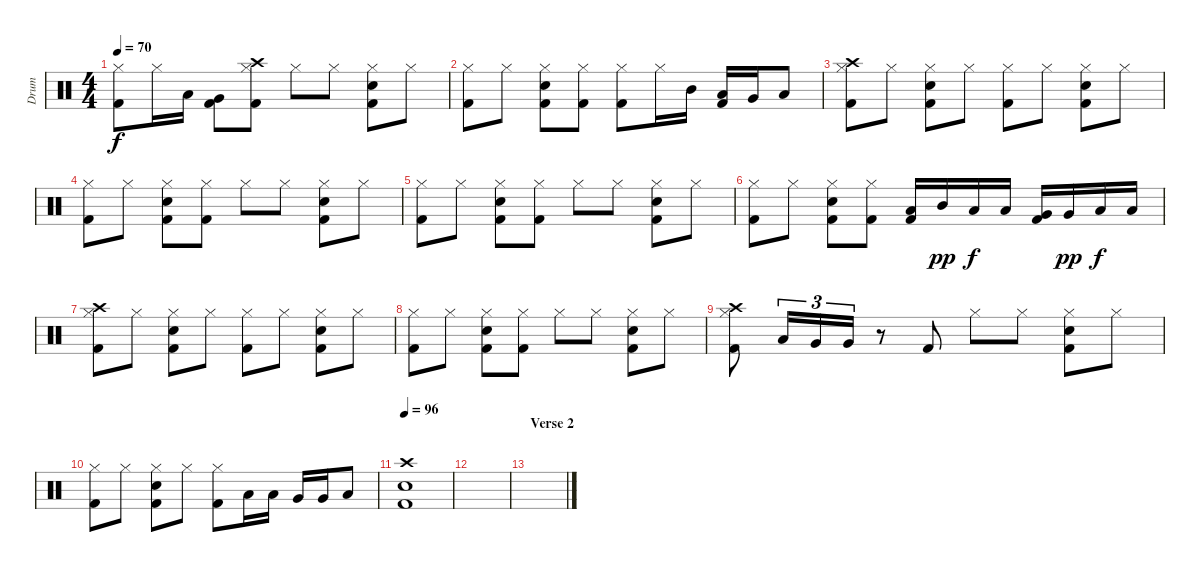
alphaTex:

\track ("Drum" "Drum") {instrument percussion}
\staff {score}
\articulation defaults
\ts (4 4)
\tempo 70
\clef neutral
\ks c
("Hi-Hat (closed)" "Kick (hit) 2").8{dy f} "Hi-Hat (closed)".16 "Low Floor Tom (hit)".16 ("Very Low Tom (hit)" "Kick (hit) 2").8 ("Crash high (hit)" "Hi-Hat (closed)" "Kick (hit) 2").8 "Hi-Hat (closed)".8 "Hi-Hat (closed)".8 ("Hi-Hat (closed)" "Electric Snare (hit)" "Kick (hit) 2").8 "Hi-Hat (closed)".8 |
("Hi-Hat (closed)" "Kick (hit) 2").8 "Hi-Hat (closed)".8 ("Hi-Hat (closed)" "Electric Snare (hit)" "Kick (hit) 2").8 ("Hi-Hat (closed)" "Kick (hit) 2").8 ("Hi-Hat (closed)" "Kick (hit) 2").8 "Hi-Hat (closed)".16 "Mid Tom (hit)".16 ("Low Tom (hit)" "Kick (hit) 2").16 "Very Low Tom (hit)".16 "Low Floor Tom (hit)".8 |
("Crash high (hit)" "Hi-Hat (closed)" "Kick (hit) 2").8 "Hi-Hat (closed)".8 ("Hi-Hat (closed)" "Electric Snare (hit)" "Kick (hit) 2").8 "Hi-Hat (closed)".8 ("Hi-Hat (closed)" "Kick (hit) 2").8 "Hi-Hat (closed)".8 ("Hi-Hat (closed)" "Electric Snare (hit)" "Kick (hit) 2").8 "Hi-Hat (closed)".8 |
("Hi-Hat (closed)" "Kick (hit) 2").8 "Hi-Hat (closed)".8 ("Hi-Hat (closed)" "Electric Snare (hit)" "Kick (hit) 2").8 ("Hi-Hat (closed)" "Kick (hit) 2").8 "Hi-Hat (closed)".8 "Hi-Hat (closed)".8 ("Hi-Hat (closed)" "Electric Snare (hit)" "Kick (hit) 2").8 "Hi-Hat (closed)".8 |
("Hi-Hat (closed)" "Kick (hit) 2").8 "Hi-Hat (closed)".8 ("Hi-Hat (closed)" "Electric Snare (hit)" "Kick (hit) 2").8 ("Hi-Hat (closed)" "Kick (hit) 2").8 "Hi-Hat (closed)".8 "Hi-Hat (closed)".8 ("Hi-Hat (closed)" "Electric Snare (hit)" "Kick (hit) 2").8 "Hi-Hat (closed)".8 |
("Hi-Hat (closed)" "Kick (hit) 2").8 "Hi-Hat (closed)".8 ("Hi-Hat (closed)" "Electric Snare (hit)" "Kick (hit) 2").8 ("Hi-Hat (closed)" "Kick (hit) 2").8 ("Low Tom (hit)" "Kick (hit) 2").16 "Mid Tom (hit)".16{dy pp} "Low Tom (hit)".16{dy f} "Low Tom (hit)".16 ("Very Low Tom (hit)" "Kick (hit) 2").16 "Very Low Tom (hit)".16{dy pp} "Low Floor Tom (hit)".16{dy f} "Low Floor Tom (hit)".16 |
("Crash high (hit)" "Hi-Hat (closed)" "Kick (hit) 2").8 "Hi-Hat (closed)".8 ("Hi-Hat (closed)" "Electric Snare (hit)" "Kick (hit) 2").8 "Hi-Hat (closed)".8 ("Hi-Hat (closed)" "Kick (hit) 2").8 "Hi-Hat (closed)".8 ("Hi-Hat (closed)" "Electric Snare (hit)" "Kick (hit) 2").8 "Hi-Hat (closed)".8 |
("Hi-Hat (closed)" "Kick (hit) 2").8 "Hi-Hat (closed)".8 ("Hi-Hat (closed)" "Electric Snare (hit)" "Kick (hit) 2").8 ("Hi-Hat (closed)" "Kick (hit) 2").8 "Hi-Hat (closed)".8 "Hi-Hat (closed)".8 ("Hi-Hat (closed)" "Electric Snare (hit)" "Kick (hit) 2").8 "Hi-Hat (closed)".8 |
("Crash high (hit)" "Hi-Hat (closed)" "Kick (hit) 2").8 "Low Tom (hit)".16{tu (3 2)} "Very Low Tom (hit)".16{tu (3 2)} "Very Low Tom (hit)".16{tu (3 2)} r.8 "Kick (hit) 2".8 "Hi-Hat (closed)".8 "Hi-Hat (closed)".8 ("Hi-Hat (closed)" "Electric Snare (hit)" "Kick (hit) 2").8 "Hi-Hat (closed)".8 |
("Hi-Hat (closed)" "Kick (hit) 2").8 "Hi-Hat (closed)".8 ("Hi-Hat (closed)" "Electric Snare (hit)" "Kick (hit) 2").8 "Hi-Hat (closed)".8 ("Hi-Hat (closed)" "Kick (hit) 2").8 "Low Tom (hit)".16 "Low Tom (hit)".16 "Very Low Tom (hit)".16 "Very Low Tom (hit)".16 "Low Floor Tom (hit)".8 |
\tempo 96
("Crash high (hit)" "Electric Snare (hit)" "Kick (hit) 2").1 |
|
\section ("" "Verse 2")
